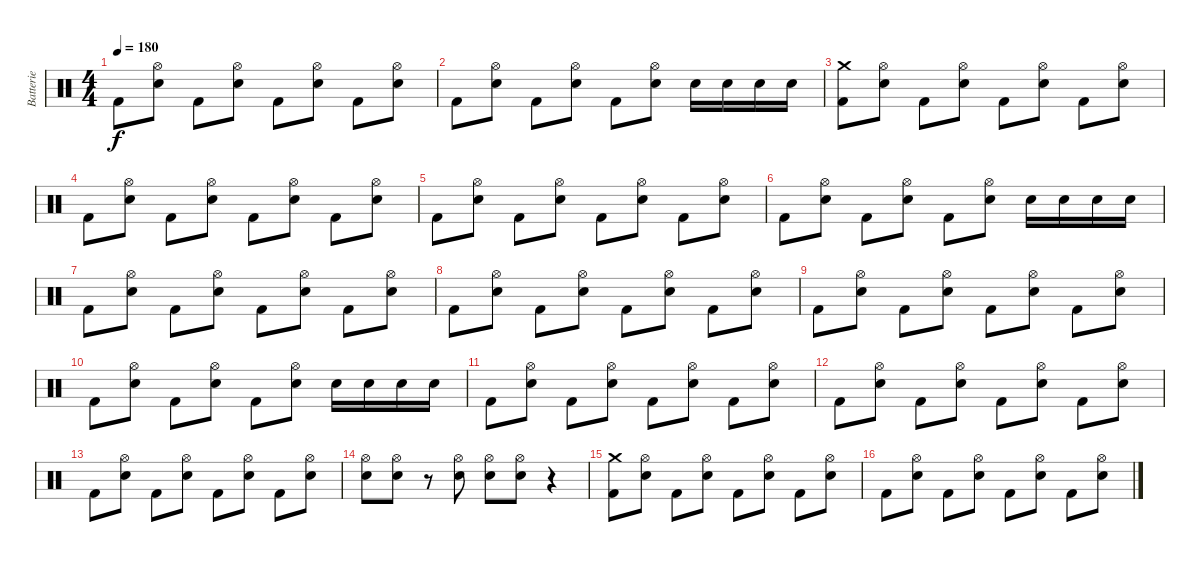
\track ("Batterie" "Batterie") {instrument percussion}
\staff {score}
\articulation defaults
\ts (4 4)
\tempo 180
\clef neutral
\ks c "Kick (hit) 2".8{dy f}
("Electric Snare (hit)" "Hi-Hat (open)").8 "Kick (hit) 2".8 ("Electric Snare (hit)" "Hi-Hat (open)").8 "Kick (hit) 2".8 ("Electric Snare (hit)" "Hi-Hat (open)").8 "Kick (hit) 2".8 ("Electric Snare (hit)" "Hi-Hat (open)").8 |
"Kick (hit) 2".8 ("Electric Snare (hit)" "Hi-Hat (open)").8 "Kick (hit) 2".8 ("Electric Snare (hit)" "Hi-Hat (open)").8 "Kick (hit) 2".8 ("Electric Snare (hit)" "Hi-Hat (open)").8 "Electric Snare (hit)".16 "Electric Snare (hit)".16 "Electric Snare (hit)".16 "Electric Snare (hit)".16 |
("Kick (hit) 2" "Crash medium (hit)").8 ("Electric Snare (hit)" "Hi-Hat (open)").8 "Kick (hit) 2".8 ("Electric Snare (hit)" "Hi-Hat (open)").8 "Kick (hit) 2".8 ("Electric Snare (hit)" "Hi-Hat (open)").8 "Kick (hit) 2".8 ("Electric Snare (hit)" "Hi-Hat (open)").8 |
"Kick (hit) 2".8 ("Electric Snare (hit)" "Hi-Hat (open)").8 "Kick (hit) 2".8 ("Electric Snare (hit)" "Hi-Hat (open)").8 "Kick (hit) 2".8 ("Electric Snare (hit)" "Hi-Hat (open)").8 "Kick (hit) 2".8 ("Electric Snare (hit)" "Hi-Hat (open)").8 |
"Kick (hit) 2".8 ("Electric Snare (hit)" "Hi-Hat (open)").8 "Kick (hit) 2".8 ("Electric Snare (hit)" "Hi-Hat (open)").8 "Kick (hit) 2".8 ("Electric Snare (hit)" "Hi-Hat (open)").8 "Kick (hit) 2".8 ("Electric Snare (hit)" "Hi-Hat (open)").8 |
"Kick (hit) 2".8 ("Electric Snare (hit)" "Hi-Hat (open)").8 "Kick (hit) 2".8 ("Electric Snare (hit)" "Hi-Hat (open)").8 "Kick (hit) 2".8 ("Electric Snare (hit)" "Hi-Hat (open)").8 "Electric Snare (hit)".16 "Electric Snare (hit)".16 "Electric Snare (hit)".16 "Electric Snare (hit)".16 |
"Kick (hit) 2".8 ("Electric Snare (hit)" "Hi-Hat (open)").8 "Kick (hit) 2".8 ("Electric Snare (hit)" "Hi-Hat (open)").8 "Kick (hit) 2".8 ("Electric Snare (hit)" "Hi-Hat (open)").8 "Kick (hit) 2".8 ("Electric Snare (hit)" "Hi-Hat (open)").8 |
"Kick (hit) 2".8 ("Electric Snare (hit)" "Hi-Hat (open)").8 "Kick (hit) 2".8 ("Electric Snare (hit)" "Hi-Hat (open)").8 "Kick (hit) 2".8 ("Electric Snare (hit)" "Hi-Hat (open)").8 "Kick (hit) 2".8 ("Electric Snare (hit)" "Hi-Hat (open)").8 |
"Kick (hit) 2".8 ("Electric Snare (hit)" "Hi-Hat (open)").8 "Kick (hit) 2".8 ("Electric Snare (hit)" "Hi-Hat (open)").8 "Kick (hit) 2".8 ("Electric Snare (hit)" "Hi-Hat (open)").8 "Kick (hit) 2".8 ("Electric Snare (hit)" "Hi-Hat (open)").8 |
"Kick (hit) 2".8 ("Electric Snare (hit)" "Hi-Hat (open)").8 "Kick (hit) 2".8 ("Electric Snare (hit)" "Hi-Hat (open)").8 "Kick (hit) 2".8 ("Electric Snare (hit)" "Hi-Hat (open)").8 "Electric Snare (hit)".16 "Electric Snare (hit)".16 "Electric Snare (hit)".16 "Electric Snare (hit)".16 |
"Kick (hit) 2".8 ("Electric Snare (hit)" "Hi-Hat (open)").8 "Kick (hit) 2".8 ("Electric Snare (hit)" "Hi-Hat (open)").8 "Kick (hit) 2".8 ("Electric Snare (hit)" "Hi-Hat (open)").8 "Kick (hit) 2".8 ("Electric Snare (hit)" "Hi-Hat (open)").8 |
"Kick (hit) 2".8 ("Electric Snare (hit)" "Hi-Hat (open)").8 "Kick (hit) 2".8 ("Electric Snare (hit)" "Hi-Hat (open)").8 "Kick (hit) 2".8 ("Electric Snare (hit)" "Hi-Hat (open)").8 "Kick (hit) 2".8 ("Electric Snare (hit)" "Hi-Hat (open)").8 |
"Kick (hit) 2".8 ("Electric Snare (hit)" "Hi-Hat (open)").8 "Kick (hit) 2".8 ("Electric Snare (hit)" "Hi-Hat (open)").8 "Kick (hit) 2".8 ("Electric Snare (hit)" "Hi-Hat (open)").8 "Kick (hit) 2".8 ("Electric Snare (hit)" "Hi-Hat (open)").8 |
("Electric Snare (hit)" "Hi-Hat (open)").8 ("Electric Snare (hit)" "Hi-Hat (open)").8 r.8 ("Electric Snare (hit)" "Hi-Hat (open)").8 ("Electric Snare (hit)" "Hi-Hat (open)").8 ("Electric Snare (hit)" "Hi-Hat (open)").8 r.4 |
("Kick (hit) 2" "Crash medium (hit)").8 ("Electric Snare (hit)" "Hi-Hat (open)").8 "Kick (hit) 2".8 ("Electric Snare (hit)" "Hi-Hat (open)").8 "Kick (hit) 2".8 ("Electric Snare (hit)" "Hi-Hat (open)").8 "Kick (hit) 2".8 ("Electric Snare (hit)" "Hi-Hat (open)").8 |
"Kick (hit) 2".8 ("Electric Snare (hit)" "Hi-Hat (open)").8 "Kick (hit) 2".8 ("Electric Snare (hit)" "Hi-Hat (open)").8 "Kick (hit) 2".8 ("Electric Snare (hit)" "Hi-Hat (open)").8 "Kick (hit) 2".8 ("Electric Snare (hit)" "Hi-Hat (open)").8
